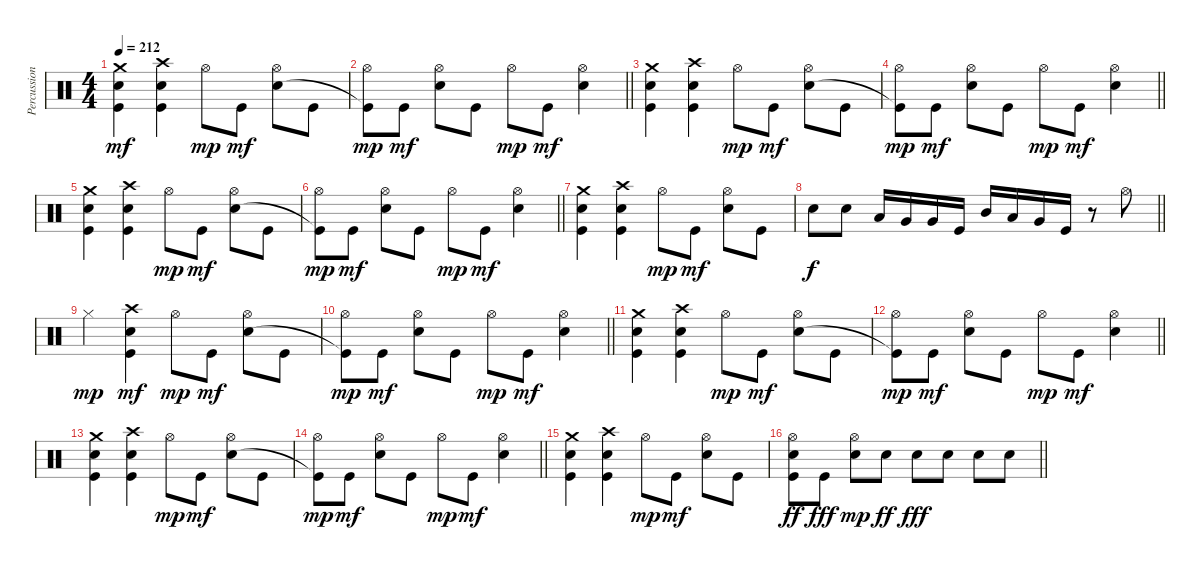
\track ("Percussion" "Percussion") {instrument percussion}
\staff {score}
\articulation defaults
\ts (4 4)
\tempo 212
\clef neutral
\ks c
("Crash medium (hit)" "Snare (hit) 2" "Kick (hit)").4{dy mf} ("Crash high (hit)" "Snare (hit) 2" "Kick (hit)").4 "Hi-Hat (open)".8{dy mp} "Kick (hit)".8{dy mf} ("Hi-Hat (open)" "Snare (hit) 2").8 "Kick (hit)".8 |
\barLineRight lightlight
("Hi-Hat (open)" "Kick (hit)"{t}).8{dy mp} "Kick (hit)".8{dy mf} ("Hi-Hat (open)" "Snare (hit) 2").8 "Kick (hit)".8 "Hi-Hat (open)".8{dy mp} "Kick (hit)".8{dy mf} ("Hi-Hat (open)" "Snare (hit) 2").4 |
("Crash medium (hit)" "Snare (hit) 2" "Kick (hit)").4 ("Crash high (hit)" "Snare (hit) 2" "Kick (hit)").4 "Hi-Hat (open)".8{dy mp} "Kick (hit)".8{dy mf} ("Hi-Hat (open)" "Snare (hit) 2").8 "Kick (hit)".8 |
\barLineRight lightlight
("Hi-Hat (open)" "Kick (hit)"{t}).8{dy mp} "Kick (hit)".8{dy mf} ("Hi-Hat (open)" "Snare (hit) 2").8 "Kick (hit)".8 "Hi-Hat (open)".8{dy mp} "Kick (hit)".8{dy mf} ("Hi-Hat (open)" "Snare (hit) 2").4 |
("Crash medium (hit)" "Snare (hit) 2" "Kick (hit)").4 ("Crash high (hit)" "Snare (hit) 2" "Kick (hit)").4 "Hi-Hat (open)".8{dy mp} "Kick (hit)".8{dy mf} ("Hi-Hat (open)" "Snare (hit) 2").8 "Kick (hit)".8 |
\barLineRight lightlight
("Hi-Hat (open)" "Kick (hit)"{t}).8{dy mp} "Kick (hit)".8{dy mf} ("Hi-Hat (open)" "Snare (hit) 2").8 "Kick (hit)".8 "Hi-Hat (open)".8{dy mp} "Kick (hit)".8{dy mf} ("Hi-Hat (open)" "Snare (hit) 2").4 |
("Crash medium (hit)" "Snare (hit) 2" "Kick (hit)").4 ("Crash high (hit)" "Snare (hit) 2" "Kick (hit)").4 "Hi-Hat (open)".8{dy mp} "Kick (hit)".8{dy mf} ("Hi-Hat (open)" "Snare (hit) 2").8 "Kick (hit)".8 |
\barLineRight lightlight "Snare (hit) 2".8{dy f} "Snare (hit) 2".8 "Low Tom (hit)".16 "Very Low Tom (hit)".16 "Very Low Tom (hit)".16 "Kick (hit)".16 "Mid Tom (hit)".16 "Low Tom (hit)".16 "Very Low Tom (hit)".16 "Kick (hit)".16
r.8 "Hi-Hat (open)".8 |
"Hi-Hat (closed)".4{dy mp} ("Crash high (hit)" "Snare (hit) 2" "Kick (hit)").4{dy mf} "Hi-Hat (open)".8{dy mp} "Kick (hit)".8{dy mf} ("Hi-Hat (open)" "Snare (hit) 2").8 "Kick (hit)".8 |
\barLineRight lightlight
("Hi-Hat (open)" "Kick (hit)"{t}).8{dy mp} "Kick (hit)".8{dy mf} ("Hi-Hat (open)" "Snare (hit) 2").8 "Kick (hit)".8 "Hi-Hat (open)".8{dy mp} "Kick (hit)".8{dy mf} ("Hi-Hat (open)" "Snare (hit) 2").4 |
("Crash medium (hit)" "Snare (hit) 2" "Kick (hit)").4 ("Crash high (hit)" "Snare (hit) 2" "Kick (hit)").4 "Hi-Hat (open)".8{dy mp} "Kick (hit)".8{dy mf} ("Hi-Hat (open)" "Snare (hit) 2").8 "Kick (hit)".8 |
\barLineRight lightlight
("Hi-Hat (open)" "Kick (hit)"{t}).8{dy mp} "Kick (hit)".8{dy mf} ("Hi-Hat (open)" "Snare (hit) 2").8 "Kick (hit)".8 "Hi-Hat (open)".8{dy mp} "Kick (hit)".8{dy mf} ("Hi-Hat (open)" "Snare (hit) 2").4 |
("Crash medium (hit)" "Snare (hit) 2" "Kick (hit)").4 ("Crash high (hit)" "Snare (hit) 2" "Kick (hit)").4 "Hi-Hat (open)".8{dy mp} "Kick (hit)".8{dy mf} ("Hi-Hat (open)" "Snare (hit) 2").8 "Kick (hit)".8 |
\barLineRight lightlight
("Hi-Hat (open)" "Kick (hit)"{t}).8{dy mp} "Kick (hit)".8{dy mf} ("Hi-Hat (open)" "Snare (hit) 2").8 "Kick (hit)".8 "Hi-Hat (open)".8{dy mp} "Kick (hit)".8{dy mf} ("Hi-Hat (open)" "Snare (hit) 2").4 |
("Crash medium (hit)" "Snare (hit) 2" "Kick (hit)").4 ("Crash high (hit)" "Snare (hit) 2" "Kick (hit)").4 "Hi-Hat (open)".8{dy mp} "Kick (hit)".8{dy mf} ("Hi-Hat (open)" "Snare (hit) 2").8 "Kick (hit)".8 |
\barLineRight lightlight
("Hi-Hat (open)" "Snare (hit) 2" "Kick (hit)").8{dy ff} "Kick (hit)".8{dy fff} ("Hi-Hat (open)" "Snare (hit) 2").8{dy mp} "Snare (hit) 2".8{dy ff} "Snare (hit) 2".8{dy fff} "Snare (hit) 2".8 "Snare (hit) 2".8 "Snare (hit) 2".8
